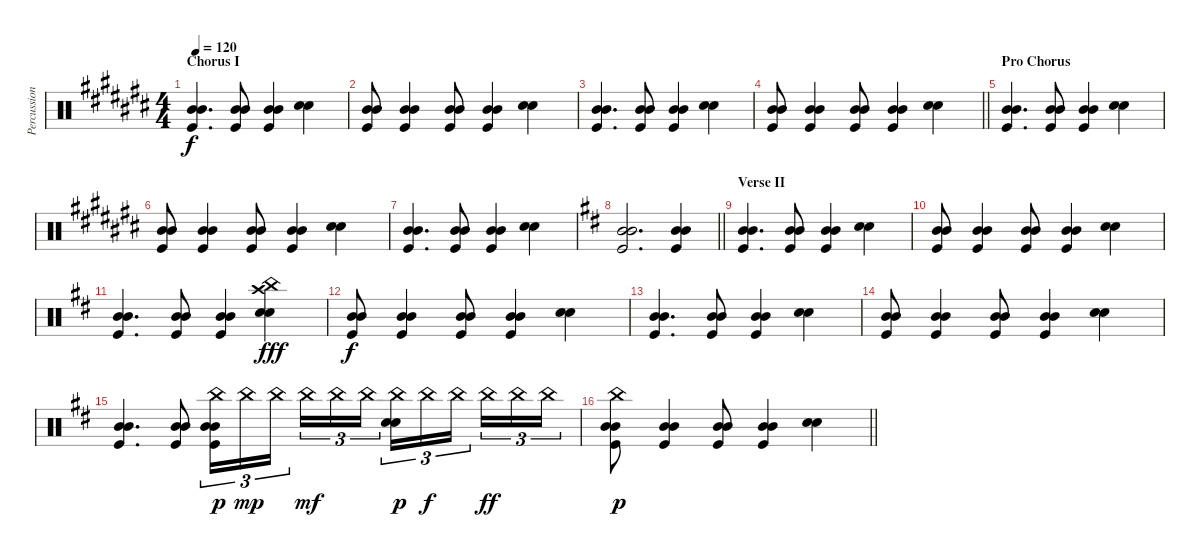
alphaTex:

\track ("Percussion" "Percussion") {instrument percussion}
\staff {score}
\articulation defaults
\ts (4 4)
\section ("" "Chorus I")
\tempo 120
\clef neutral
\ks a#minor
("Mid Tom (hit)" "Mid Tom (hit)" "Kick (hit)").4{d dy f} ("Mid Tom (hit)" "Mid Tom (hit)" "Kick (hit)").8 ("Mid Tom (hit)" "Mid Tom (hit)" "Kick (hit)").4 ("Snare (hit) 2" "Snare (hit) 2").4 |
("Mid Tom (hit)" "Mid Tom (hit)" "Kick (hit)").8 ("Mid Tom (hit)" "Mid Tom (hit)" "Kick (hit)").4 ("Mid Tom (hit)" "Mid Tom (hit)" "Kick (hit)").8 ("Mid Tom (hit)" "Mid Tom (hit)" "Kick (hit)").4 ("Snare (hit) 2" "Snare (hit) 2").4 |
("Mid Tom (hit)" "Mid Tom (hit)" "Kick (hit)").4{d} ("Mid Tom (hit)" "Mid Tom (hit)" "Kick (hit)").8 ("Mid Tom (hit)" "Mid Tom (hit)" "Kick (hit)").4 ("Snare (hit) 2" "Snare (hit) 2").4 |
\barLineRight lightlight
("Mid Tom (hit)" "Mid Tom (hit)" "Kick (hit)").8 ("Mid Tom (hit)" "Mid Tom (hit)" "Kick (hit)").4 ("Mid Tom (hit)" "Mid Tom (hit)" "Kick (hit)").8 ("Mid Tom (hit)" "Mid Tom (hit)" "Kick (hit)").4 ("Snare (hit) 2" "Snare (hit) 2").4 |
\section ("" "Pro Chorus")
("Mid Tom (hit)" "Mid Tom (hit)" "Kick (hit)").4{d} ("Mid Tom (hit)" "Mid Tom (hit)" "Kick (hit)").8 ("Mid Tom (hit)" "Mid Tom (hit)" "Kick (hit)").4 ("Snare (hit) 2" "Snare (hit) 2").4 |
("Mid Tom (hit)" "Mid Tom (hit)" "Kick (hit)").8 ("Mid Tom (hit)" "Mid Tom (hit)" "Kick (hit)").4 ("Mid Tom (hit)" "Mid Tom (hit)" "Kick (hit)").8 ("Mid Tom (hit)" "Mid Tom (hit)" "Kick (hit)").4 ("Snare (hit) 2" "Snare (hit) 2").4 |
("Mid Tom (hit)" "Mid Tom (hit)" "Kick (hit)").4{d} ("Mid Tom (hit)" "Mid Tom (hit)" "Kick (hit)").8 ("Mid Tom (hit)" "Mid Tom (hit)" "Kick (hit)").4 ("Snare (hit) 2" "Snare (hit) 2").4 |
\barLineRight lightlight
\ks bminor
("Mid Tom (hit)" "Mid Tom (hit)" "Kick (hit)").2{d} ("Mid Tom (hit)" "Mid Tom (hit)" "Kick (hit)").4 |
\section ("" "Verse II")
("Mid Tom (hit)" "Mid Tom (hit)" "Kick (hit)").4{d} ("Mid Tom (hit)" "Mid Tom (hit)" "Kick (hit)").8 ("Mid Tom (hit)" "Mid Tom (hit)" "Kick (hit)").4 ("Snare (hit) 2" "Snare (hit) 2").4 |
("Mid Tom (hit)" "Mid Tom (hit)" "Kick (hit)").8 ("Mid Tom (hit)" "Mid Tom (hit)" "Kick (hit)").4 ("Mid Tom (hit)" "Mid Tom (hit)" "Kick (hit)").8 ("Mid Tom (hit)" "Mid Tom (hit)" "Kick (hit)").4 ("Snare (hit) 2" "Snare (hit) 2").4 |
("Mid Tom (hit)" "Mid Tom (hit)" "Kick (hit)").4{d} ("Mid Tom (hit)" "Mid Tom (hit)" "Kick (hit)").8 ("Mid Tom (hit)" "Mid Tom (hit)" "Kick (hit)").4 ("Crash high (hit)" "China (hit)" "Snare (hit) 2" "Snare (hit) 2").4{dy fff} |
("Mid Tom (hit)" "Mid Tom (hit)" "Kick (hit)").8{dy f} ("Mid Tom (hit)" "Mid Tom (hit)" "Kick (hit)").4 ("Mid Tom (hit)" "Mid Tom (hit)" "Kick (hit)").8 ("Mid Tom (hit)" "Mid Tom (hit)" "Kick (hit)").4 ("Snare (hit) 2" "Snare (hit) 2").4 |
("Mid Tom (hit)" "Mid Tom (hit)" "Kick (hit)").4{d} ("Mid Tom (hit)" "Mid Tom (hit)" "Kick (hit)").8 ("Mid Tom (hit)" "Mid Tom (hit)" "Kick (hit)").4 ("Snare (hit) 2" "Snare (hit) 2").4 |
("Mid Tom (hit)" "Mid Tom (hit)" "Kick (hit)").8 ("Mid Tom (hit)" "Mid Tom (hit)" "Kick (hit)").4 ("Mid Tom (hit)" "Mid Tom (hit)" "Kick (hit)").8 ("Mid Tom (hit)" "Mid Tom (hit)" "Kick (hit)").4 ("Snare (hit) 2" "Snare (hit) 2").4 |
("Mid Tom (hit)" "Mid Tom (hit)" "Kick (hit)").4{d} ("Mid Tom (hit)" "Mid Tom (hit)" "Kick (hit)").8 ("China (hit)" "Mid Tom (hit)" "Mid Tom (hit)" "Kick (hit)").16{tu (3 2) dy p volume 15} "China (hit)".16{tu (3 2) dy mp} "China (hit)".16{tu (3 2) beam splitsecondary} "China (hit)".16{tu (3 2) dy mf} "China (hit)".16{tu (3 2)} "China (hit)".16{tu (3 2)} ("China (hit)" "Snare (hit) 2" "Snare (hit) 2").16{tu (3 2) dy p} "China (hit)".16{tu (3 2) dy f} "China (hit)".16{tu (3 2) beam splitsecondary} "China (hit)".16{tu (3 2) dy ff} "China (hit)".16{tu (3 2)} "China (hit)".16{tu (3 2)} |
\barLineRight lightlight
("China (hit)" "Mid Tom (hit)" "Mid Tom (hit)" "Kick (hit)").8{dy p} ("Mid Tom (hit)" "Mid Tom (hit)" "Kick (hit)").4 ("Mid Tom (hit)" "Mid Tom (hit)" "Kick (hit)").8 ("Mid Tom (hit)" "Mid Tom (hit)" "Kick (hit)").4 ("Snare (hit) 2" "Snare (hit) 2").4
